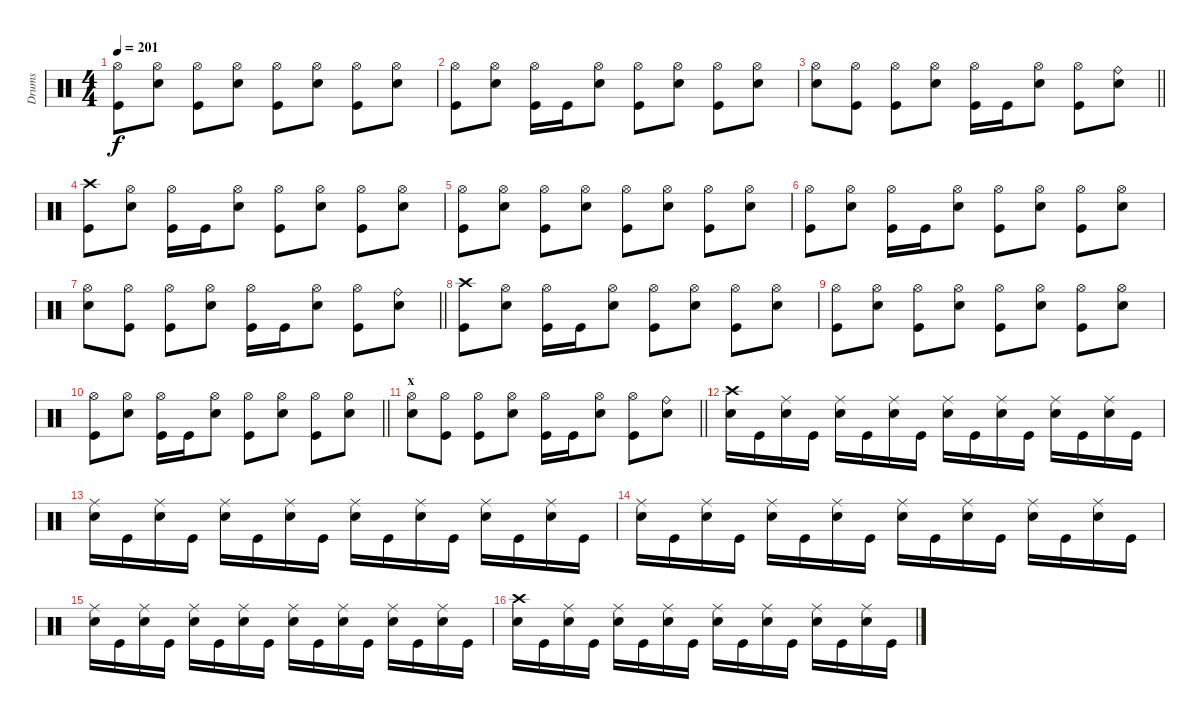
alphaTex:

\track ("Drums" "Drums") {instrument percussion}
\staff
\articulation defaults
\ts (4 4)
\tempo 201
\clef neutral
\ks c
("Hi-Hat (open)" "Kick (hit)").8{dy f} ("Hi-Hat (open)" "Electric Snare (hit)").8 ("Hi-Hat (open)" "Kick (hit)").8 ("Hi-Hat (open)" "Electric Snare (hit)").8 ("Hi-Hat (open)" "Kick (hit)").8 ("Hi-Hat (open)" "Electric Snare (hit)").8 ("Hi-Hat (open)" "Kick (hit)").8 ("Hi-Hat (open)" "Electric Snare (hit)").8 |
("Hi-Hat (open)" "Kick (hit)").8 ("Hi-Hat (open)" "Electric Snare (hit)").8 ("Hi-Hat (open)" "Kick (hit)").16 "Kick (hit)".16 ("Hi-Hat (open)" "Electric Snare (hit)").8 ("Hi-Hat (open)" "Kick (hit)").8 ("Hi-Hat (open)" "Electric Snare (hit)").8 ("Hi-Hat (open)" "Kick (hit)").8 ("Hi-Hat (open)" "Electric Snare (hit)").8 |
\barLineRight lightlight
("Hi-Hat (open)" "Electric Snare (hit)").8 ("Hi-Hat (open)" "Kick (hit)").8 ("Hi-Hat (open)" "Kick (hit)").8 ("Hi-Hat (open)" "Electric Snare (hit)").8 ("Hi-Hat (open)" "Kick (hit)").16 "Kick (hit)".16 ("Hi-Hat (open)" "Electric Snare (hit)").8 ("Hi-Hat (open)" "Kick (hit)").8 ("Ride (bell)" "Electric Snare (hit)").8 |
("Crash high (hit)" "Kick (hit)").8 ("Hi-Hat (open)" "Electric Snare (hit)").8 ("Hi-Hat (open)" "Kick (hit)").16 "Kick (hit)".16 ("Hi-Hat (open)" "Electric Snare (hit)").8 ("Hi-Hat (open)" "Kick (hit)").8 ("Hi-Hat (open)" "Electric Snare (hit)").8 ("Hi-Hat (open)" "Kick (hit)").8 ("Hi-Hat (open)" "Electric Snare (hit)").8 |
("Hi-Hat (open)" "Kick (hit)").8 ("Hi-Hat (open)" "Electric Snare (hit)").8 ("Hi-Hat (open)" "Kick (hit)").8 ("Hi-Hat (open)" "Electric Snare (hit)").8 ("Hi-Hat (open)" "Kick (hit)").8 ("Hi-Hat (open)" "Electric Snare (hit)").8 ("Hi-Hat (open)" "Kick (hit)").8 ("Hi-Hat (open)" "Electric Snare (hit)").8 |
("Hi-Hat (open)" "Kick (hit)").8 ("Hi-Hat (open)" "Electric Snare (hit)").8 ("Hi-Hat (open)" "Kick (hit)").16 "Kick (hit)".16 ("Hi-Hat (open)" "Electric Snare (hit)").8 ("Hi-Hat (open)" "Kick (hit)").8 ("Hi-Hat (open)" "Electric Snare (hit)").8 ("Hi-Hat (open)" "Kick (hit)").8 ("Hi-Hat (open)" "Electric Snare (hit)").8 |
\barLineRight lightlight
("Hi-Hat (open)" "Electric Snare (hit)").8 ("Hi-Hat (open)" "Kick (hit)").8 ("Hi-Hat (open)" "Kick (hit)").8 ("Hi-Hat (open)" "Electric Snare (hit)").8 ("Hi-Hat (open)" "Kick (hit)").16 "Kick (hit)".16 ("Hi-Hat (open)" "Electric Snare (hit)").8 ("Hi-Hat (open)" "Kick (hit)").8 ("Ride (bell)" "Electric Snare (hit)").8 |
("Crash high (hit)" "Kick (hit)").8 ("Hi-Hat (open)" "Electric Snare (hit)").8 ("Hi-Hat (open)" "Kick (hit)").16 "Kick (hit)".16 ("Hi-Hat (open)" "Electric Snare (hit)").8 ("Hi-Hat (open)" "Kick (hit)").8 ("Hi-Hat (open)" "Electric Snare (hit)").8 ("Hi-Hat (open)" "Kick (hit)").8 ("Hi-Hat (open)" "Electric Snare (hit)").8 |
("Hi-Hat (open)" "Kick (hit)").8 ("Hi-Hat (open)" "Electric Snare (hit)").8 ("Hi-Hat (open)" "Kick (hit)").8 ("Hi-Hat (open)" "Electric Snare (hit)").8 ("Hi-Hat (open)" "Kick (hit)").8 ("Hi-Hat (open)" "Electric Snare (hit)").8 ("Hi-Hat (open)" "Kick (hit)").8 ("Hi-Hat (open)" "Electric Snare (hit)").8 |
\barLineRight lightlight
("Hi-Hat (open)" "Kick (hit)").8 ("Hi-Hat (open)" "Electric Snare (hit)").8 ("Hi-Hat (open)" "Kick (hit)").16 "Kick (hit)".16 ("Hi-Hat (open)" "Electric Snare (hit)").8 ("Hi-Hat (open)" "Kick (hit)").8 ("Hi-Hat (open)" "Electric Snare (hit)").8 ("Hi-Hat (open)" "Kick (hit)").8 ("Hi-Hat (open)" "Electric Snare (hit)").8 |
\section ("" "x")
\barLineRight lightlight
("Hi-Hat (open)" "Electric Snare (hit)").8 ("Hi-Hat (open)" "Kick (hit)").8 ("Hi-Hat (open)" "Kick (hit)").8 ("Hi-Hat (open)" "Electric Snare (hit)").8 ("Hi-Hat (open)" "Kick (hit)").16 "Kick (hit)".16 ("Hi-Hat (open)" "Electric Snare (hit)").8 ("Hi-Hat (open)" "Kick (hit)").8 ("Ride (bell)" "Electric Snare (hit)").8 |
\section ("" "")
("Crash high (hit)" "Electric Snare (hit)").16 "Kick (hit)".16 ("Ride (middle)" "Electric Snare (hit)").16 "Kick (hit)".16 ("Ride (middle)" "Electric Snare (hit)").16 "Kick (hit)".16 ("Ride (middle)" "Electric Snare (hit)").16 "Kick (hit)".16 ("Ride (middle)" "Electric Snare (hit)").16 "Kick (hit)".16 ("Ride (middle)" "Electric Snare (hit)").16 "Kick (hit)".16 ("Ride (middle)" "Electric Snare (hit)").16 "Kick (hit)".16 ("Ride (middle)" "Electric Snare (hit)").16 "Kick (hit)".16 |
("Ride (middle)" "Electric Snare (hit)").16 "Kick (hit)".16 ("Ride (middle)" "Electric Snare (hit)").16 "Kick (hit)".16 ("Ride (middle)" "Electric Snare (hit)").16 "Kick (hit)".16 ("Ride (middle)" "Electric Snare (hit)").16 "Kick (hit)".16 ("Ride (middle)" "Electric Snare (hit)").16 "Kick (hit)".16 ("Ride (middle)" "Electric Snare (hit)").16 "Kick (hit)".16 ("Ride (middle)" "Electric Snare (hit)").16 "Kick (hit)".16 ("Ride (middle)" "Electric Snare (hit)").16 "Kick (hit)".16 |
("Ride (middle)" "Electric Snare (hit)").16 "Kick (hit)".16 ("Ride (middle)" "Electric Snare (hit)").16 "Kick (hit)".16 ("Ride (middle)" "Electric Snare (hit)").16 "Kick (hit)".16 ("Ride (middle)" "Electric Snare (hit)").16 "Kick (hit)".16 ("Ride (middle)" "Electric Snare (hit)").16 "Kick (hit)".16 ("Ride (middle)" "Electric Snare (hit)").16 "Kick (hit)".16 ("Ride (middle)" "Electric Snare (hit)").16 "Kick (hit)".16 ("Ride (middle)" "Electric Snare (hit)").16 "Kick (hit)".16 |
("Ride (middle)" "Electric Snare (hit)").16 "Kick (hit)".16 ("Ride (middle)" "Electric Snare (hit)").16 "Kick (hit)".16 ("Ride (middle)" "Electric Snare (hit)").16 "Kick (hit)".16 ("Ride (middle)" "Electric Snare (hit)").16 "Kick (hit)".16 ("Ride (middle)" "Electric Snare (hit)").16 "Kick (hit)".16 ("Ride (middle)" "Electric Snare (hit)").16 "Kick (hit)".16 ("Ride (middle)" "Electric Snare (hit)").16 "Kick (hit)".16 ("Ride (middle)" "Electric Snare (hit)").16 "Kick (hit)".16 |
("Crash high (hit)" "Electric Snare (hit)").16 "Kick (hit)".16 ("Ride (middle)" "Electric Snare (hit)").16 "Kick (hit)".16 ("Ride (middle)" "Electric Snare (hit)").16 "Kick (hit)".16 ("Ride (middle)" "Electric Snare (hit)").16 "Kick (hit)".16 ("Ride (middle)" "Electric Snare (hit)").16 "Kick (hit)".16 ("Ride (middle)" "Electric Snare (hit)").16 "Kick (hit)".16 ("Ride (middle)" "Electric Snare (hit)").16 "Kick (hit)".16 ("Ride (middle)" "Electric Snare (hit)").16 "Kick (hit)".16
